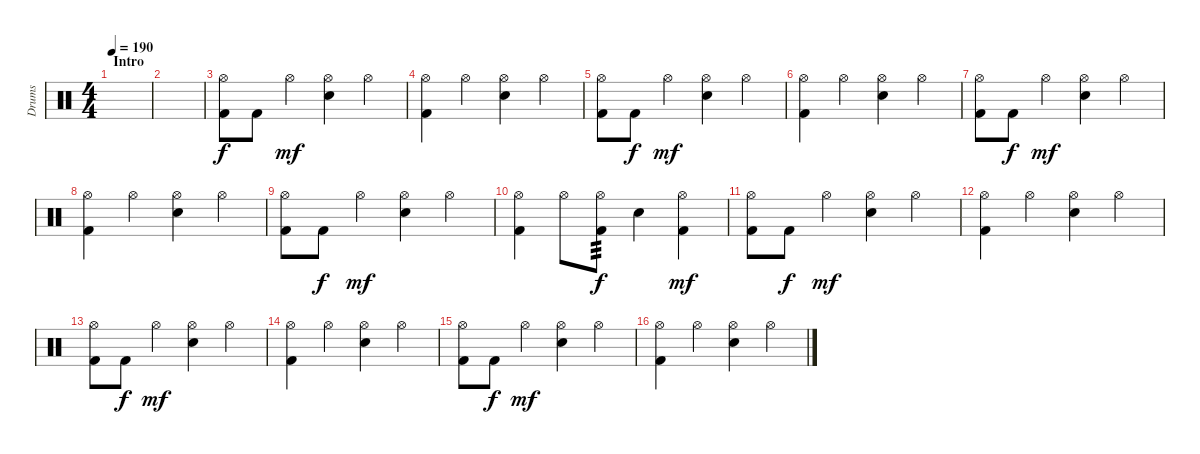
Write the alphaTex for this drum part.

\track ("Drums" "Drums") {instrument percussion}
\staff {score}
\articulation defaults
\ts (4 4)
\section ("" "Intro")
\tempo 190
\clef neutral
\ks c
|
|
("Hi-Hat (open)" "Kick (hit) 2").8 "Kick (hit) 2".8{dy f} "Hi-Hat (open)".4{dy mf} ("Hi-Hat (open)" "Electric Snare (hit)").4 "Hi-Hat (open)".4 |
("Hi-Hat (open)" "Kick (hit) 2").4 "Hi-Hat (open)".4 ("Hi-Hat (open)" "Electric Snare (hit)").4 "Hi-Hat (open)".4 |
("Hi-Hat (open)" "Kick (hit) 2").8 "Kick (hit) 2".8{dy f} "Hi-Hat (open)".4{dy mf} ("Hi-Hat (open)" "Electric Snare (hit)").4 "Hi-Hat (open)".4 |
("Hi-Hat (open)" "Kick (hit) 2").4 "Hi-Hat (open)".4 ("Hi-Hat (open)" "Electric Snare (hit)").4 "Hi-Hat (open)".4 |
("Hi-Hat (open)" "Kick (hit) 2").8 "Kick (hit) 2".8{dy f} "Hi-Hat (open)".4{dy mf} ("Hi-Hat (open)" "Electric Snare (hit)").4 "Hi-Hat (open)".4 |
("Hi-Hat (open)" "Kick (hit) 2").4 "Hi-Hat (open)".4 ("Hi-Hat (open)" "Electric Snare (hit)").4 "Hi-Hat (open)".4 |
("Hi-Hat (open)" "Kick (hit) 2").8 "Kick (hit) 2".8{dy f} "Hi-Hat (open)".4{dy mf} ("Hi-Hat (open)" "Electric Snare (hit)").4 "Hi-Hat (open)".4 |
("Hi-Hat (open)" "Kick (hit) 2").4 "Hi-Hat (open)".8 ("Hi-Hat (open)" "Kick (hit) 2").8{tp 3 dy f} "Electric Snare (hit)".4 ("Hi-Hat (open)" "Kick (hit) 2").4{dy mf} |
("Hi-Hat (open)" "Kick (hit) 2").8 "Kick (hit) 2".8{dy f} "Hi-Hat (open)".4{dy mf} ("Hi-Hat (open)" "Electric Snare (hit)").4 "Hi-Hat (open)".4 |
("Hi-Hat (open)" "Kick (hit) 2").4 "Hi-Hat (open)".4 ("Hi-Hat (open)" "Electric Snare (hit)").4 "Hi-Hat (open)".4 |
("Hi-Hat (open)" "Kick (hit) 2").8 "Kick (hit) 2".8{dy f} "Hi-Hat (open)".4{dy mf} ("Hi-Hat (open)" "Electric Snare (hit)").4 "Hi-Hat (open)".4 |
("Hi-Hat (open)" "Kick (hit) 2").4 "Hi-Hat (open)".4 ("Hi-Hat (open)" "Electric Snare (hit)").4 "Hi-Hat (open)".4 |
("Hi-Hat (open)" "Kick (hit) 2").8 "Kick (hit) 2".8{dy f} "Hi-Hat (open)".4{dy mf} ("Hi-Hat (open)" "Electric Snare (hit)").4 "Hi-Hat (open)".4 |
("Hi-Hat (open)" "Kick (hit) 2").4 "Hi-Hat (open)".4 ("Hi-Hat (open)" "Electric Snare (hit)").4 "Hi-Hat (open)".4
